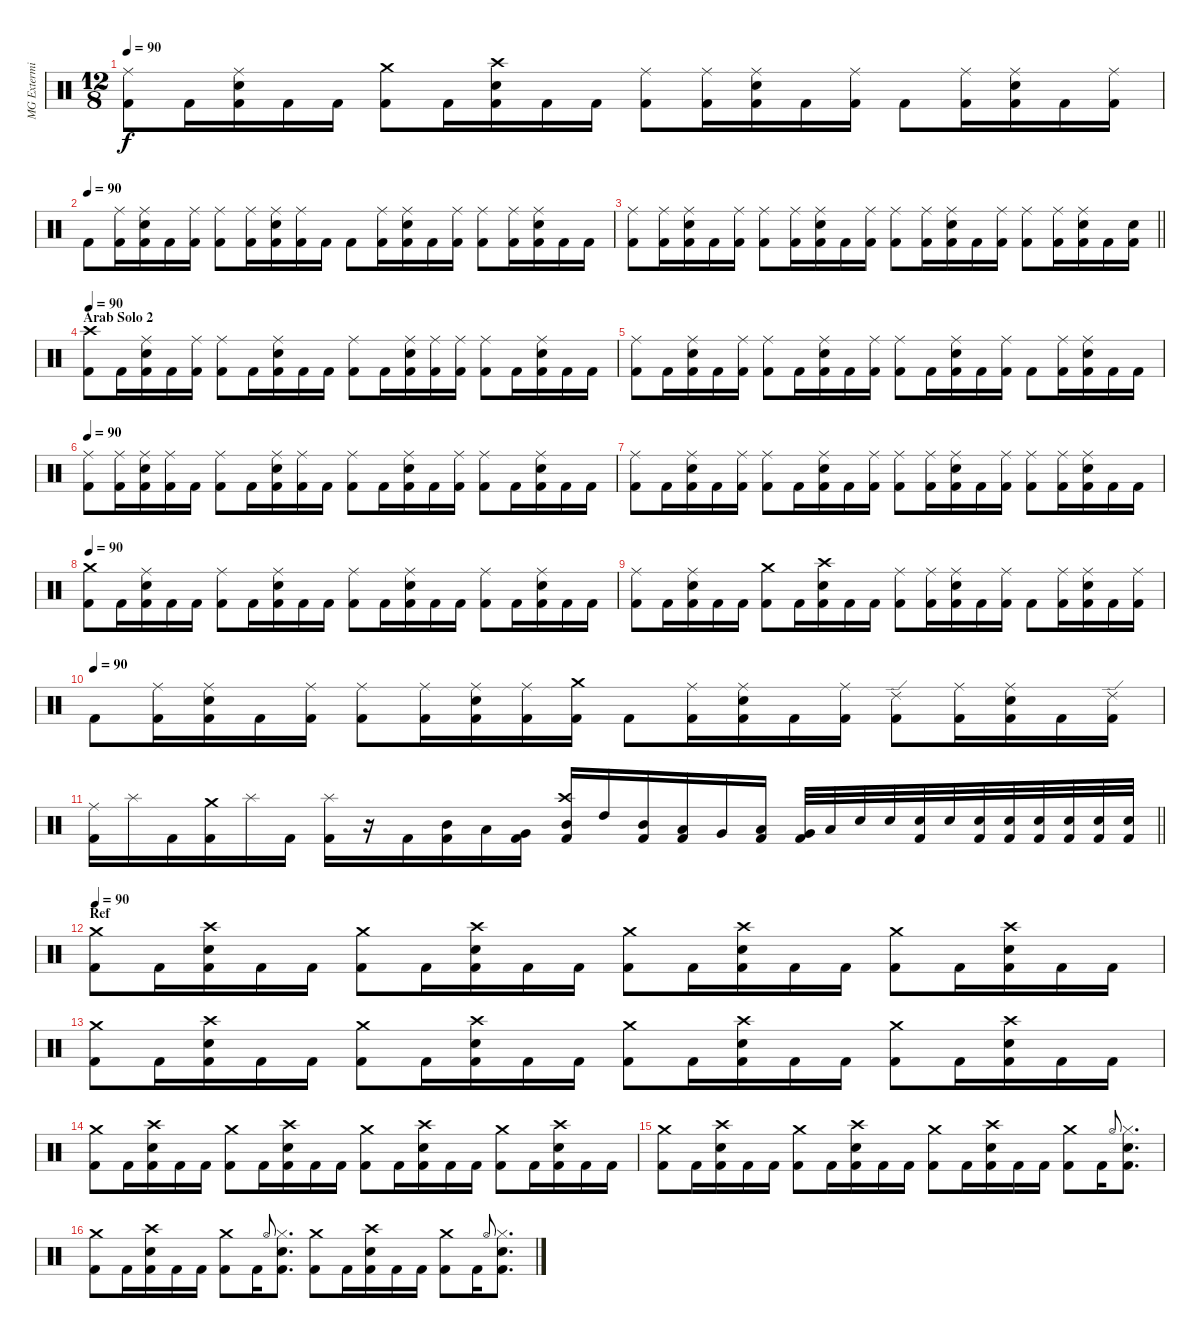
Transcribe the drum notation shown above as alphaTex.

\track ("MG Exterminator" "MG Extermi") {instrument percussion}
\staff {score}
\articulation defaults
\ts (12 8)
\tempo 90
\clef neutral
\ks c
("Ride (middle)" "Kick (hit) 2").8{dy f} "Kick (hit) 2".16 ("Ride (middle)" "Snare (hit) 2" "Kick (hit) 2").16 "Kick (hit) 2".16 "Kick (hit) 2".16 ("Crash medium (hit)" "Kick (hit) 2").8 "Kick (hit) 2".16 ("Crash high (hit)" "Snare (hit) 2" "Kick (hit) 2").16 "Kick (hit) 2".16 "Kick (hit) 2".16 ("Ride (middle)" "Kick (hit) 2").8 ("Ride (middle)" "Kick (hit) 2").16 ("Ride (middle)" "Snare (hit) 2" "Kick (hit) 2").16 "Kick (hit) 2".16 ("Ride (middle)" "Kick (hit) 2").16 "Kick (hit) 2".8 ("Ride (middle)" "Kick (hit) 2").16 ("Ride (middle)" "Snare (hit) 2" "Kick (hit) 2").16 "Kick (hit) 2".16 ("Ride (middle)" "Kick (hit) 2").16 |
\tempo (90)
"Kick (hit) 2".8 ("Ride (middle)" "Kick (hit) 2").16 ("Ride (middle)" "Snare (hit) 2" "Kick (hit) 2").16 "Kick (hit) 2".16 ("Ride (middle)" "Kick (hit) 2").16 ("Ride (middle)" "Kick (hit) 2").8 ("Ride (middle)" "Kick (hit) 2").16 ("Ride (middle)" "Snare (hit) 2" "Kick (hit) 2").16 ("Ride (middle)" "Kick (hit) 2").16 "Kick (hit) 2".16 "Kick (hit) 2".8 ("Ride (middle)" "Kick (hit) 2").16 ("Ride (middle)" "Snare (hit) 2" "Kick (hit) 2").16 "Kick (hit) 2".16 ("Ride (middle)" "Kick (hit) 2").16 ("Ride (middle)" "Kick (hit) 2").8 ("Ride (middle)" "Kick (hit) 2").16 ("Ride (middle)" "Snare (hit) 2" "Kick (hit) 2").16 "Kick (hit) 2".16 "Kick (hit) 2".16 |
\barLineRight lightlight
("Ride (middle)" "Kick (hit) 2").8 ("Ride (middle)" "Kick (hit) 2").16 ("Ride (middle)" "Snare (hit) 2" "Kick (hit) 2").16 "Kick (hit) 2".16 ("Ride (middle)" "Kick (hit) 2").16 ("Ride (middle)" "Kick (hit) 2").8 ("Ride (middle)" "Kick (hit) 2").16 ("Ride (middle)" "Snare (hit) 2" "Kick (hit) 2").16 "Kick (hit) 2".16 ("Ride (middle)" "Kick (hit) 2").16 ("Ride (middle)" "Kick (hit) 2").8 ("Ride (middle)" "Kick (hit) 2").16 ("Ride (middle)" "Snare (hit) 2" "Kick (hit) 2").16 "Kick (hit) 2".16 ("Ride (middle)" "Kick (hit) 2").16 ("Ride (middle)" "Kick (hit) 2").8 ("Ride (middle)" "Kick (hit) 2").16 ("Ride (middle)" "Snare (hit) 2" "Kick (hit) 2").16 "Kick (hit) 2".16 ("Snare (hit) 2" "Kick (hit) 2").16 |
\section ("" "Arab Solo 2")
\tempo 90
("Crash high (hit)" "Kick (hit) 2").8 "Kick (hit) 2".16 ("Ride (middle)" "Snare (hit) 2" "Kick (hit) 2").16 "Kick (hit) 2".16 ("Ride (middle)" "Kick (hit) 2").16 ("Ride (middle)" "Kick (hit) 2").8 "Kick (hit) 2".16 ("Ride (middle)" "Snare (hit) 2" "Kick (hit) 2").16 "Kick (hit) 2".16 "Kick (hit) 2".16 ("Ride (middle)" "Kick (hit) 2").8 "Kick (hit) 2".16 ("Ride (middle)" "Snare (hit) 2" "Kick (hit) 2").16 ("Ride (middle)" "Kick (hit) 2").16 ("Ride (middle)" "Kick (hit) 2").16 ("Ride (middle)" "Kick (hit) 2").8 "Kick (hit) 2".16 ("Ride (middle)" "Snare (hit) 2" "Kick (hit) 2").16 "Kick (hit) 2".16 "Kick (hit) 2".16 |
("Ride (middle)" "Kick (hit) 2").8 "Kick (hit) 2".16 ("Ride (middle)" "Snare (hit) 2" "Kick (hit) 2").16 "Kick (hit) 2".16 ("Ride (middle)" "Kick (hit) 2").16 ("Ride (middle)" "Kick (hit) 2").8 "Kick (hit) 2".16 ("Ride (middle)" "Snare (hit) 2" "Kick (hit) 2").16 "Kick (hit) 2".16 ("Ride (middle)" "Kick (hit) 2").16 ("Ride (middle)" "Kick (hit) 2").8 "Kick (hit) 2".16 ("Ride (middle)" "Snare (hit) 2" "Kick (hit) 2").16 "Kick (hit) 2".16 ("Ride (middle)" "Kick (hit) 2").16 "Kick (hit) 2".8 ("Ride (middle)" "Kick (hit) 2").16 ("Ride (middle)" "Snare (hit) 2" "Kick (hit) 2").16 "Kick (hit) 2".16 "Kick (hit) 2".16 |
\tempo 90
("Ride (middle)" "Kick (hit) 2").8 ("Ride (middle)" "Kick (hit) 2").16 ("Ride (middle)" "Snare (hit) 2" "Kick (hit) 2").16 ("Ride (middle)" "Kick (hit) 2").16 "Kick (hit) 2".16 ("Ride (middle)" "Kick (hit) 2").8 "Kick (hit) 2".16 ("Ride (middle)" "Snare (hit) 2" "Kick (hit) 2").16 ("Ride (middle)" "Kick (hit) 2").16 "Kick (hit) 2".16 ("Ride (middle)" "Kick (hit) 2").8 "Kick (hit) 2".16 ("Ride (middle)" "Snare (hit) 2" "Kick (hit) 2").16 "Kick (hit) 2".16 ("Ride (middle)" "Kick (hit) 2").16 ("Ride (middle)" "Kick (hit) 2").8 "Kick (hit) 2".16 ("Ride (middle)" "Snare (hit) 2" "Kick (hit) 2").16 "Kick (hit) 2".16 "Kick (hit) 2".16 |
("Ride (middle)" "Kick (hit) 2").8 "Kick (hit) 2".16 ("Ride (middle)" "Snare (hit) 2" "Kick (hit) 2").16 "Kick (hit) 2".16 ("Ride (middle)" "Kick (hit) 2").16 ("Ride (middle)" "Kick (hit) 2").8 "Kick (hit) 2".16 ("Ride (middle)" "Snare (hit) 2" "Kick (hit) 2").16 "Kick (hit) 2".16 ("Ride (middle)" "Kick (hit) 2").16 ("Ride (middle)" "Kick (hit) 2").8 ("Ride (middle)" "Kick (hit) 2").16 ("Ride (middle)" "Snare (hit) 2" "Kick (hit) 2").16 "Kick (hit) 2".16 ("Ride (middle)" "Kick (hit) 2").16 ("Ride (middle)" "Kick (hit) 2").8 ("Ride (middle)" "Kick (hit) 2").16 ("Ride (middle)" "Snare (hit) 2" "Kick (hit) 2").16 "Kick (hit) 2".16 "Kick (hit) 2".16 |
\tempo 90
("Crash medium (hit)" "Kick (hit) 2").8 "Kick (hit) 2".16 ("Ride (middle)" "Snare (hit) 2" "Kick (hit) 2").16 "Kick (hit) 2".16 "Kick (hit) 2".16 ("Ride (middle)" "Kick (hit) 2").8 "Kick (hit) 2".16 ("Ride (middle)" "Snare (hit) 2" "Kick (hit) 2").16 "Kick (hit) 2".16 "Kick (hit) 2".16 ("Ride (middle)" "Kick (hit) 2").8 "Kick (hit) 2".16 ("Ride (middle)" "Snare (hit) 2" "Kick (hit) 2").16 "Kick (hit) 2".16 "Kick (hit) 2".16 ("Ride (middle)" "Kick (hit) 2").8 "Kick (hit) 2".16 ("Ride (middle)" "Snare (hit) 2" "Kick (hit) 2").16 "Kick (hit) 2".16 "Kick (hit) 2".16 |
("Ride (middle)" "Kick (hit) 2").8 "Kick (hit) 2".16 ("Ride (middle)" "Snare (hit) 2" "Kick (hit) 2").16 "Kick (hit) 2".16 "Kick (hit) 2".16 ("Crash medium (hit)" "Kick (hit) 2").8 "Kick (hit) 2".16 ("Crash high (hit)" "Snare (hit) 2" "Kick (hit) 2").16 "Kick (hit) 2".16 "Kick (hit) 2".16 ("Ride (middle)" "Kick (hit) 2").8 ("Ride (middle)" "Kick (hit) 2").16 ("Ride (middle)" "Snare (hit) 2" "Kick (hit) 2").16 "Kick (hit) 2".16 ("Ride (middle)" "Kick (hit) 2").16 "Kick (hit) 2".8 ("Ride (middle)" "Kick (hit) 2").16 ("Ride (middle)" "Snare (hit) 2" "Kick (hit) 2").16 "Kick (hit) 2".16 ("Ride (middle)" "Kick (hit) 2").16 |
\tempo (90)
"Kick (hit) 2".8 ("Ride (middle)" "Kick (hit) 2").16 ("Ride (middle)" "Snare (hit) 2" "Kick (hit) 2").16 "Kick (hit) 2".16 ("Ride (middle)" "Kick (hit) 2").16 ("Ride (middle)" "Kick (hit) 2").8 ("Ride (middle)" "Kick (hit) 2").16 ("Ride (middle)" "Snare (hit) 2" "Kick (hit) 2").16 ("Ride (middle)" "Kick (hit) 2").16 ("Crash medium (hit)" "Kick (hit) 2").16 "Kick (hit) 2".8 ("Ride (middle)" "Kick (hit) 2").16 ("Ride (middle)" "Snare (hit) 2" "Kick (hit) 2").16 "Kick (hit) 2".16 ("Ride (middle)" "Kick (hit) 2").16 ("Ride (edge) 2" "Kick (hit) 2").8 ("Ride (middle)" "Kick (hit) 2").16 ("Ride (middle)" "Snare (hit) 2" "Kick (hit) 2").16 "Kick (hit) 2".16 ("Ride (edge) 2" "Kick (hit) 2").16 |
\barLineRight lightlight
("Ride (middle)" "Kick (hit) 2").16 "Splash (hit)".16 "Kick (hit) 2".16 ("Crash medium (hit)" "Kick (hit) 2").16 "Splash (hit)".16 "Kick (hit) 2".16 ("Splash (hit)" "Kick (hit) 2").16 r.16 "Kick (hit) 2".16 ("Mid Tom (hit)" "Kick (hit) 2").16 "Low Tom (hit)".16 ("Very Low Tom (hit)" "Kick (hit) 2").16 ("Mid Tom (hit)" "Crash high (hit)" "Kick (hit) 2").16 "High Tom (hit)".16 ("Mid Tom (hit)" "Kick (hit) 2").16 ("Low Tom (hit)" "Kick (hit) 2").16 "Very Low Tom (hit)".16 ("Low Floor Tom (hit)" "Kick (hit) 2").16 ("Very Low Tom (hit)" "Kick (hit) 2").32 "Low Floor Tom (hit)".32 "Snare (hit) 2".32 "Snare (hit) 2".32 ("Snare (hit) 2" "Kick (hit) 2").32 "Snare (hit) 2".32 ("Snare (hit) 2" "Kick (hit) 2").32 ("Snare (hit) 2" "Kick (hit) 2").32 ("Snare (hit) 2" "Kick (hit) 2").32 ("Snare (hit) 2" "Kick (hit) 2").32 ("Snare (hit) 2" "Kick (hit) 2").32 ("Snare (hit) 2" "Kick (hit) 2").32 |
\section ("" "Ref")
\tempo 90
("Crash medium (hit)" "Kick (hit) 2").8 "Kick (hit) 2".16 ("Crash high (hit)" "Snare (hit) 2" "Kick (hit) 2").16 "Kick (hit) 2".16 "Kick (hit) 2".16 ("Crash medium (hit)" "Kick (hit) 2").8 "Kick (hit) 2".16 ("Crash high (hit)" "Snare (hit) 2" "Kick (hit) 2").16 "Kick (hit) 2".16 "Kick (hit) 2".16 ("Crash medium (hit)" "Kick (hit) 2").8 "Kick (hit) 2".16 ("Crash high (hit)" "Snare (hit) 2" "Kick (hit) 2").16 "Kick (hit) 2".16 "Kick (hit) 2".16 ("Crash medium (hit)" "Kick (hit) 2").8 "Kick (hit) 2".16 ("Crash high (hit)" "Snare (hit) 2" "Kick (hit) 2").16 "Kick (hit) 2".16 "Kick (hit) 2".16 |
("Crash medium (hit)" "Kick (hit) 2").8 "Kick (hit) 2".16 ("Crash high (hit)" "Snare (hit) 2" "Kick (hit) 2").16 "Kick (hit) 2".16 "Kick (hit) 2".16 ("Crash medium (hit)" "Kick (hit) 2").8 "Kick (hit) 2".16 ("Crash high (hit)" "Snare (hit) 2" "Kick (hit) 2").16 "Kick (hit) 2".16 "Kick (hit) 2".16 ("Crash medium (hit)" "Kick (hit) 2").8 "Kick (hit) 2".16 ("Crash high (hit)" "Snare (hit) 2" "Kick (hit) 2").16 "Kick (hit) 2".16 "Kick (hit) 2".16 ("Crash medium (hit)" "Kick (hit) 2").8 "Kick (hit) 2".16 ("Crash high (hit)" "Snare (hit) 2" "Kick (hit) 2").16 "Kick (hit) 2".16 "Kick (hit) 2".16 |
("Crash medium (hit)" "Kick (hit) 2").8 "Kick (hit) 2".16 ("Crash high (hit)" "Snare (hit) 2" "Kick (hit) 2").16 "Kick (hit) 2".16 "Kick (hit) 2".16 ("Crash medium (hit)" "Kick (hit) 2").8 "Kick (hit) 2".16 ("Crash high (hit)" "Snare (hit) 2" "Kick (hit) 2").16 "Kick (hit) 2".16 "Kick (hit) 2".16 ("Crash medium (hit)" "Kick (hit) 2").8 "Kick (hit) 2".16 ("Crash high (hit)" "Snare (hit) 2" "Kick (hit) 2").16 "Kick (hit) 2".16 "Kick (hit) 2".16 ("Crash medium (hit)" "Kick (hit) 2").8 "Kick (hit) 2".16 ("Crash high (hit)" "Snare (hit) 2" "Kick (hit) 2").16 "Kick (hit) 2".16 "Kick (hit) 2".16 |
("Crash medium (hit)" "Kick (hit) 2").8 "Kick (hit) 2".16 ("Crash high (hit)" "Snare (hit) 2" "Kick (hit) 2").16 "Kick (hit) 2".16 "Kick (hit) 2".16 ("Crash medium (hit)" "Kick (hit) 2").8 "Kick (hit) 2".16 ("Crash high (hit)" "Snare (hit) 2" "Kick (hit) 2").16 "Kick (hit) 2".16 "Kick (hit) 2".16 ("Crash medium (hit)" "Kick (hit) 2").8 "Kick (hit) 2".16 ("Crash high (hit)" "Snare (hit) 2" "Kick (hit) 2").16 "Kick (hit) 2".16 "Kick (hit) 2".16 ("Crash medium (hit)" "Kick (hit) 2").8 "Kick (hit) 2".16 "Hi-Hat (open)".8{gr onbeat} ("Hi-Hat (closed)" "Snare (hit) 2" "Kick (hit) 2").8{d} |
("Crash medium (hit)" "Kick (hit) 2").8 "Kick (hit) 2".16 ("Crash high (hit)" "Snare (hit) 2" "Kick (hit) 2").16 "Kick (hit) 2".16 "Kick (hit) 2".16 ("Crash medium (hit)" "Kick (hit) 2").8 "Kick (hit) 2".16 "Hi-Hat (open)".8{gr onbeat} ("Hi-Hat (closed)" "Snare (hit) 2" "Kick (hit) 2").8{d} ("Crash medium (hit)" "Kick (hit) 2").8 "Kick (hit) 2".16 ("Crash high (hit)" "Snare (hit) 2" "Kick (hit) 2").16 "Kick (hit) 2".16 "Kick (hit) 2".16 ("Crash medium (hit)" "Kick (hit) 2").8 "Kick (hit) 2".16 "Hi-Hat (open)".8{gr onbeat} ("Hi-Hat (closed)" "Snare (hit) 2" "Kick (hit) 2").8{d}
